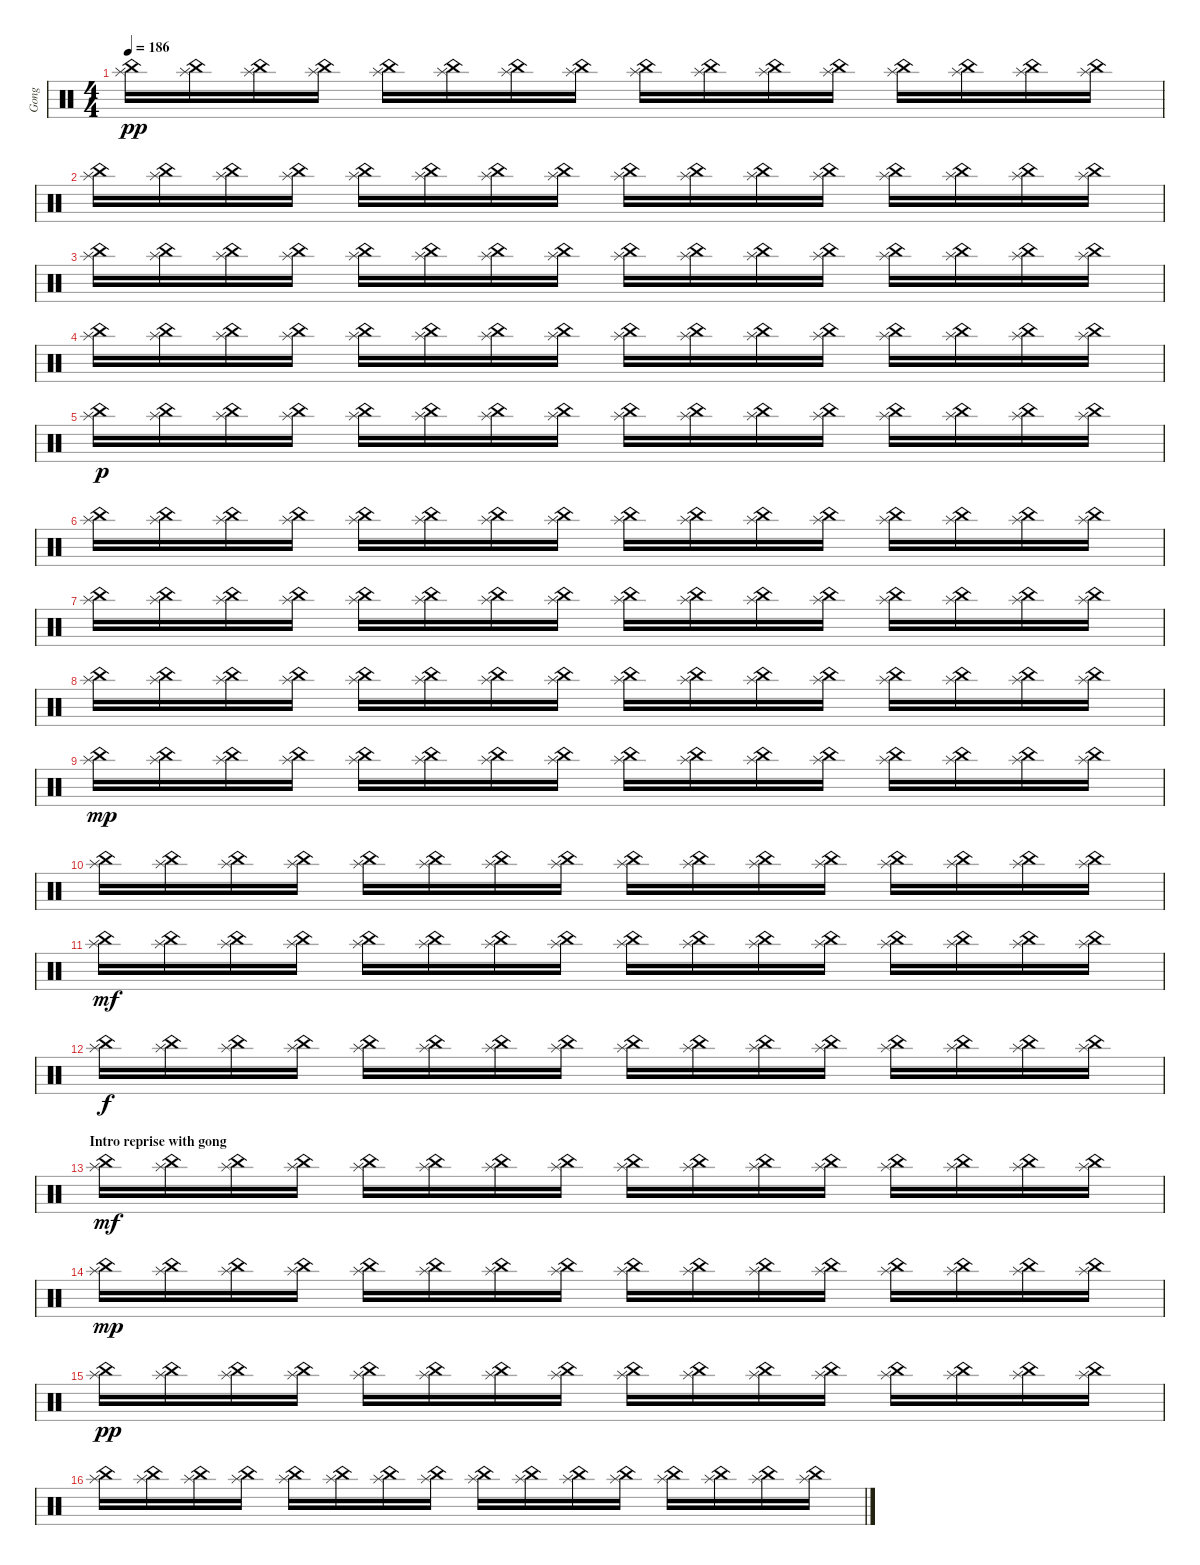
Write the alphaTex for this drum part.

\track ("Gong" "Gong") {instrument percussion}
\staff {score}
\articulation defaults
\ts (4 4)
\tempo 186
\clef neutral
\ks c
("China (hit)" "Splash (hit)").16{dy pp} ("China (hit)" "Splash (hit)").16 ("China (hit)" "Splash (hit)").16 ("China (hit)" "Splash (hit)").16 ("China (hit)" "Splash (hit)").16 ("China (hit)" "Splash (hit)").16 ("China (hit)" "Splash (hit)").16 ("China (hit)" "Splash (hit)").16 ("China (hit)" "Splash (hit)").16 ("China (hit)" "Splash (hit)").16 ("China (hit)" "Splash (hit)").16 ("China (hit)" "Splash (hit)").16 ("China (hit)" "Splash (hit)").16 ("China (hit)" "Splash (hit)").16 ("China (hit)" "Splash (hit)").16 ("China (hit)" "Splash (hit)").16 |
("China (hit)" "Splash (hit)").16 ("China (hit)" "Splash (hit)").16 ("China (hit)" "Splash (hit)").16 ("China (hit)" "Splash (hit)").16 ("China (hit)" "Splash (hit)").16 ("China (hit)" "Splash (hit)").16 ("China (hit)" "Splash (hit)").16 ("China (hit)" "Splash (hit)").16 ("China (hit)" "Splash (hit)").16 ("China (hit)" "Splash (hit)").16 ("China (hit)" "Splash (hit)").16 ("China (hit)" "Splash (hit)").16 ("China (hit)" "Splash (hit)").16 ("China (hit)" "Splash (hit)").16 ("China (hit)" "Splash (hit)").16 ("China (hit)" "Splash (hit)").16 |
("China (hit)" "Splash (hit)").16 ("China (hit)" "Splash (hit)").16 ("China (hit)" "Splash (hit)").16 ("China (hit)" "Splash (hit)").16 ("China (hit)" "Splash (hit)").16 ("China (hit)" "Splash (hit)").16 ("China (hit)" "Splash (hit)").16 ("China (hit)" "Splash (hit)").16 ("China (hit)" "Splash (hit)").16 ("China (hit)" "Splash (hit)").16 ("China (hit)" "Splash (hit)").16 ("China (hit)" "Splash (hit)").16 ("China (hit)" "Splash (hit)").16 ("China (hit)" "Splash (hit)").16 ("China (hit)" "Splash (hit)").16 ("China (hit)" "Splash (hit)").16 |
("China (hit)" "Splash (hit)").16 ("China (hit)" "Splash (hit)").16 ("China (hit)" "Splash (hit)").16 ("China (hit)" "Splash (hit)").16 ("China (hit)" "Splash (hit)").16 ("China (hit)" "Splash (hit)").16 ("China (hit)" "Splash (hit)").16 ("China (hit)" "Splash (hit)").16 ("China (hit)" "Splash (hit)").16 ("China (hit)" "Splash (hit)").16 ("China (hit)" "Splash (hit)").16 ("China (hit)" "Splash (hit)").16 ("China (hit)" "Splash (hit)").16 ("China (hit)" "Splash (hit)").16 ("China (hit)" "Splash (hit)").16 ("China (hit)" "Splash (hit)").16 |
("China (hit)" "Splash (hit)").16{dy p} ("China (hit)" "Splash (hit)").16 ("China (hit)" "Splash (hit)").16 ("China (hit)" "Splash (hit)").16 ("China (hit)" "Splash (hit)").16 ("China (hit)" "Splash (hit)").16 ("China (hit)" "Splash (hit)").16 ("China (hit)" "Splash (hit)").16 ("China (hit)" "Splash (hit)").16 ("China (hit)" "Splash (hit)").16 ("China (hit)" "Splash (hit)").16 ("China (hit)" "Splash (hit)").16 ("China (hit)" "Splash (hit)").16 ("China (hit)" "Splash (hit)").16 ("China (hit)" "Splash (hit)").16 ("China (hit)" "Splash (hit)").16 |
("China (hit)" "Splash (hit)").16 ("China (hit)" "Splash (hit)").16 ("China (hit)" "Splash (hit)").16 ("China (hit)" "Splash (hit)").16 ("China (hit)" "Splash (hit)").16 ("China (hit)" "Splash (hit)").16 ("China (hit)" "Splash (hit)").16 ("China (hit)" "Splash (hit)").16 ("China (hit)" "Splash (hit)").16 ("China (hit)" "Splash (hit)").16 ("China (hit)" "Splash (hit)").16 ("China (hit)" "Splash (hit)").16 ("China (hit)" "Splash (hit)").16 ("China (hit)" "Splash (hit)").16 ("China (hit)" "Splash (hit)").16 ("China (hit)" "Splash (hit)").16 |
("China (hit)" "Splash (hit)").16 ("China (hit)" "Splash (hit)").16 ("China (hit)" "Splash (hit)").16 ("China (hit)" "Splash (hit)").16 ("China (hit)" "Splash (hit)").16 ("China (hit)" "Splash (hit)").16 ("China (hit)" "Splash (hit)").16 ("China (hit)" "Splash (hit)").16 ("China (hit)" "Splash (hit)").16 ("China (hit)" "Splash (hit)").16 ("China (hit)" "Splash (hit)").16 ("China (hit)" "Splash (hit)").16 ("China (hit)" "Splash (hit)").16 ("China (hit)" "Splash (hit)").16 ("China (hit)" "Splash (hit)").16 ("China (hit)" "Splash (hit)").16 |
("China (hit)" "Splash (hit)").16 ("China (hit)" "Splash (hit)").16 ("China (hit)" "Splash (hit)").16 ("China (hit)" "Splash (hit)").16 ("China (hit)" "Splash (hit)").16 ("China (hit)" "Splash (hit)").16 ("China (hit)" "Splash (hit)").16 ("China (hit)" "Splash (hit)").16 ("China (hit)" "Splash (hit)").16 ("China (hit)" "Splash (hit)").16 ("China (hit)" "Splash (hit)").16 ("China (hit)" "Splash (hit)").16 ("China (hit)" "Splash (hit)").16 ("China (hit)" "Splash (hit)").16 ("China (hit)" "Splash (hit)").16 ("China (hit)" "Splash (hit)").16 |
("China (hit)" "Splash (hit)").16{dy mp} ("China (hit)" "Splash (hit)").16 ("China (hit)" "Splash (hit)").16 ("China (hit)" "Splash (hit)").16 ("China (hit)" "Splash (hit)").16 ("China (hit)" "Splash (hit)").16 ("China (hit)" "Splash (hit)").16 ("China (hit)" "Splash (hit)").16 ("China (hit)" "Splash (hit)").16 ("China (hit)" "Splash (hit)").16 ("China (hit)" "Splash (hit)").16 ("China (hit)" "Splash (hit)").16 ("China (hit)" "Splash (hit)").16 ("China (hit)" "Splash (hit)").16 ("China (hit)" "Splash (hit)").16 ("China (hit)" "Splash (hit)").16 |
("China (hit)" "Splash (hit)").16 ("China (hit)" "Splash (hit)").16 ("China (hit)" "Splash (hit)").16 ("China (hit)" "Splash (hit)").16 ("China (hit)" "Splash (hit)").16 ("China (hit)" "Splash (hit)").16 ("China (hit)" "Splash (hit)").16 ("China (hit)" "Splash (hit)").16 ("China (hit)" "Splash (hit)").16 ("China (hit)" "Splash (hit)").16 ("China (hit)" "Splash (hit)").16 ("China (hit)" "Splash (hit)").16 ("China (hit)" "Splash (hit)").16 ("China (hit)" "Splash (hit)").16 ("China (hit)" "Splash (hit)").16 ("China (hit)" "Splash (hit)").16 |
("China (hit)" "Splash (hit)").16{dy mf} ("China (hit)" "Splash (hit)").16 ("China (hit)" "Splash (hit)").16 ("China (hit)" "Splash (hit)").16 ("China (hit)" "Splash (hit)").16 ("China (hit)" "Splash (hit)").16 ("China (hit)" "Splash (hit)").16 ("China (hit)" "Splash (hit)").16 ("China (hit)" "Splash (hit)").16 ("China (hit)" "Splash (hit)").16 ("China (hit)" "Splash (hit)").16 ("China (hit)" "Splash (hit)").16 ("China (hit)" "Splash (hit)").16 ("China (hit)" "Splash (hit)").16 ("China (hit)" "Splash (hit)").16 ("China (hit)" "Splash (hit)").16 |
("China (hit)" "Splash (hit)").16{dy f} ("China (hit)" "Splash (hit)").16 ("China (hit)" "Splash (hit)").16 ("China (hit)" "Splash (hit)").16 ("China (hit)" "Splash (hit)").16 ("China (hit)" "Splash (hit)").16 ("China (hit)" "Splash (hit)").16 ("China (hit)" "Splash (hit)").16 ("China (hit)" "Splash (hit)").16 ("China (hit)" "Splash (hit)").16 ("China (hit)" "Splash (hit)").16 ("China (hit)" "Splash (hit)").16 ("China (hit)" "Splash (hit)").16 ("China (hit)" "Splash (hit)").16 ("China (hit)" "Splash (hit)").16 ("China (hit)" "Splash (hit)").16 |
\section ("" "Intro reprise with gong")
("China (hit)" "Splash (hit)").16{dy mf} ("China (hit)" "Splash (hit)").16 ("China (hit)" "Splash (hit)").16 ("China (hit)" "Splash (hit)").16 ("China (hit)" "Splash (hit)").16 ("China (hit)" "Splash (hit)").16 ("China (hit)" "Splash (hit)").16 ("China (hit)" "Splash (hit)").16 ("China (hit)" "Splash (hit)").16 ("China (hit)" "Splash (hit)").16 ("China (hit)" "Splash (hit)").16 ("China (hit)" "Splash (hit)").16 ("China (hit)" "Splash (hit)").16 ("China (hit)" "Splash (hit)").16 ("China (hit)" "Splash (hit)").16 ("China (hit)" "Splash (hit)").16 |
("China (hit)" "Splash (hit)").16{dy mp} ("China (hit)" "Splash (hit)").16 ("China (hit)" "Splash (hit)").16 ("China (hit)" "Splash (hit)").16 ("China (hit)" "Splash (hit)").16 ("China (hit)" "Splash (hit)").16 ("China (hit)" "Splash (hit)").16 ("China (hit)" "Splash (hit)").16 ("China (hit)" "Splash (hit)").16 ("China (hit)" "Splash (hit)").16 ("China (hit)" "Splash (hit)").16 ("China (hit)" "Splash (hit)").16 ("China (hit)" "Splash (hit)").16 ("China (hit)" "Splash (hit)").16 ("China (hit)" "Splash (hit)").16 ("China (hit)" "Splash (hit)").16 |
("China (hit)" "Splash (hit)").16{dy pp} ("China (hit)" "Splash (hit)").16 ("China (hit)" "Splash (hit)").16 ("China (hit)" "Splash (hit)").16 ("China (hit)" "Splash (hit)").16 ("China (hit)" "Splash (hit)").16 ("China (hit)" "Splash (hit)").16 ("China (hit)" "Splash (hit)").16 ("China (hit)" "Splash (hit)").16 ("China (hit)" "Splash (hit)").16 ("China (hit)" "Splash (hit)").16 ("China (hit)" "Splash (hit)").16 ("China (hit)" "Splash (hit)").16 ("China (hit)" "Splash (hit)").16 ("China (hit)" "Splash (hit)").16 ("China (hit)" "Splash (hit)").16 |
("China (hit)" "Splash (hit)").16 ("China (hit)" "Splash (hit)").16 ("China (hit)" "Splash (hit)").16 ("China (hit)" "Splash (hit)").16 ("China (hit)" "Splash (hit)").16 ("China (hit)" "Splash (hit)").16 ("China (hit)" "Splash (hit)").16 ("China (hit)" "Splash (hit)").16 ("China (hit)" "Splash (hit)").16 ("China (hit)" "Splash (hit)").16 ("China (hit)" "Splash (hit)").16 ("China (hit)" "Splash (hit)").16 ("China (hit)" "Splash (hit)").16 ("China (hit)" "Splash (hit)").16 ("China (hit)" "Splash (hit)").16 ("China (hit)" "Splash (hit)").16
